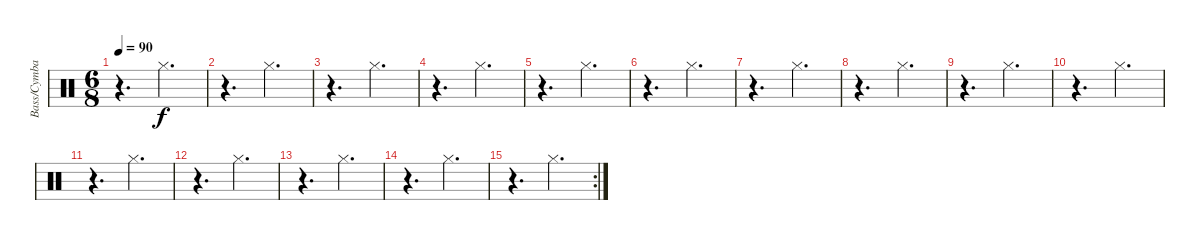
\track ("Bass/Cymbal" "Bass/Cymba") {instrument percussion}
\staff {score}
\articulation defaults
\ts (6 8)
\tempo 90
\clef neutral
\ks c
r.4{d dy f} "Hi-Hat (closed)".4{d} |
r.4{d} "Hi-Hat (closed)".4{d} |
r.4{d} "Hi-Hat (closed)".4{d} |
r.4{d} "Hi-Hat (closed)".4{d} |
r.4{d} "Hi-Hat (closed)".4{d} |
r.4{d} "Hi-Hat (closed)".4{d} |
r.4{d} "Hi-Hat (closed)".4{d} |
r.4{d} "Hi-Hat (closed)".4{d} |
r.4{d} "Hi-Hat (closed)".4{d} |
r.4{d} "Hi-Hat (closed)".4{d} |
r.4{d} "Hi-Hat (closed)".4{d} |
r.4{d} "Hi-Hat (closed)".4{d} |
r.4{d} "Hi-Hat (closed)".4{d} |
r.4{d} "Hi-Hat (closed)".4{d} |
\rc 2
r.4{d} "Hi-Hat (closed)".4{d}
